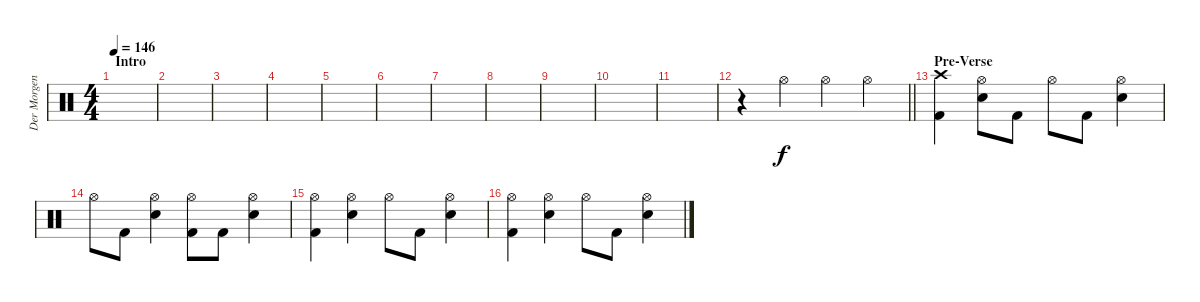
\track ("Der Morgenstern" "Der Morgen") {instrument percussion}
\staff {score}
\articulation defaults
\ts (4 4)
\section ("" "Intro")
\tempo 146
\clef neutral
\ks c
|
|
|
|
|
|
|
|
|
|
|
\barLineRight lightlight
r.4 "Hi-Hat (open)".4 "Hi-Hat (open)".4 "Hi-Hat (open)".4 |
\section ("" "Pre-Verse")
("Crash high (hit)" "Kick (hit) 2").4 ("Hi-Hat (open)" "Electric Snare (hit)").8 "Kick (hit) 2".8 "Hi-Hat (open)".8 "Kick (hit) 2".8 ("Hi-Hat (open)" "Electric Snare (hit)").4 |
"Hi-Hat (open)".8 "Kick (hit) 2".8 ("Hi-Hat (open)" "Electric Snare (hit)").4 ("Hi-Hat (open)" "Kick (hit) 2").8 "Kick (hit) 2".8 ("Hi-Hat (open)" "Electric Snare (hit)").4 |
("Hi-Hat (open)" "Kick (hit) 2").4 ("Hi-Hat (open)" "Electric Snare (hit)").4 "Hi-Hat (open)".8 "Kick (hit) 2".8 ("Hi-Hat (open)" "Electric Snare (hit)").4 |
("Hi-Hat (open)" "Kick (hit) 2").4 ("Hi-Hat (open)" "Electric Snare (hit)").4 "Hi-Hat (open)".8 "Kick (hit) 2".8 ("Hi-Hat (open)" "Electric Snare (hit)").4
